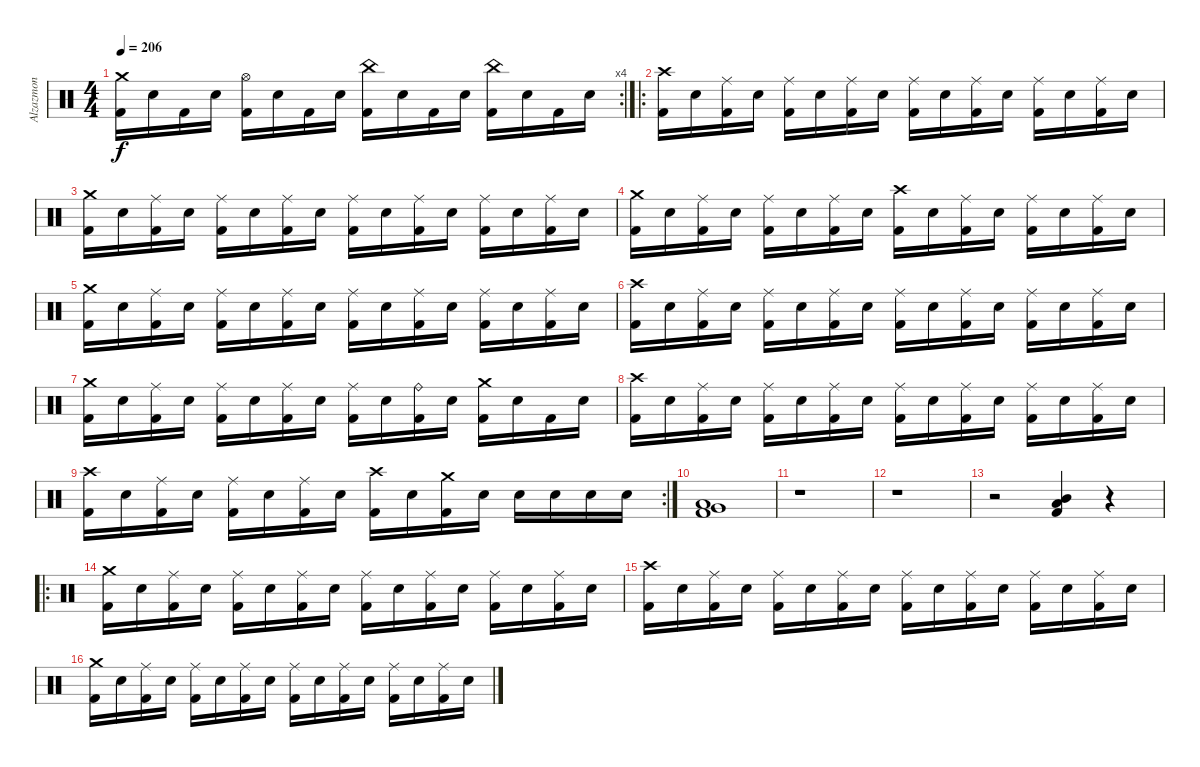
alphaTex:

\track ("Alzazmon" "Alzazmon") {instrument percussion}
\staff {score}
\articulation defaults
\rc 4
\ts (4 4)
\tempo 206
\clef neutral
\ks c
("Crash medium (hit)" "Kick (hit) 2").16{dy f} "Snare (hit) 2".16 "Kick (hit) 2".16 "Snare (hit) 2".16 ("Hi-Hat (open)" "Kick (hit) 2").16 "Snare (hit) 2".16 "Kick (hit) 2".16 "Snare (hit) 2".16 ("China (hit)" "Kick (hit) 2").16 "Snare (hit) 2".16 "Kick (hit) 2".16 "Snare (hit) 2".16 ("China (hit)" "Kick (hit) 2").16 "Snare (hit) 2".16 "Kick (hit) 2".16 "Snare (hit) 2".16 |
\ro
("Crash high (hit)" "Kick (hit) 2").16 "Snare (hit) 2".16 ("Ride (middle)" "Kick (hit) 2").16 "Snare (hit) 2".16 ("Ride (middle)" "Kick (hit) 2").16 "Snare (hit) 2".16 ("Ride (middle)" "Kick (hit) 2").16 "Snare (hit) 2".16 ("Ride (middle)" "Kick (hit) 2").16 "Snare (hit) 2".16 ("Ride (middle)" "Kick (hit) 2").16 "Snare (hit) 2".16 ("Ride (middle)" "Kick (hit) 2").16 "Snare (hit) 2".16 ("Ride (middle)" "Kick (hit) 2").16 "Snare (hit) 2".16 |
("Crash medium (hit)" "Kick (hit) 2").16 "Snare (hit) 2".16 ("Ride (middle)" "Kick (hit) 2").16 "Snare (hit) 2".16 ("Ride (middle)" "Kick (hit) 2").16 "Snare (hit) 2".16 ("Ride (middle)" "Kick (hit) 2").16 "Snare (hit) 2".16 ("Ride (middle)" "Kick (hit) 2").16 "Snare (hit) 2".16 ("Ride (middle)" "Kick (hit) 2").16 "Snare (hit) 2".16 ("Ride (middle)" "Kick (hit) 2").16 "Snare (hit) 2".16 ("Ride (middle)" "Kick (hit) 2").16 "Snare (hit) 2".16 |
("Crash medium (hit)" "Kick (hit) 2").16 "Snare (hit) 2".16 ("Ride (middle)" "Kick (hit) 2").16 "Snare (hit) 2".16 ("Ride (middle)" "Kick (hit) 2").16 "Snare (hit) 2".16 ("Ride (middle)" "Kick (hit) 2").16 "Snare (hit) 2".16 ("Crash high (hit)" "Kick (hit) 2").16 "Snare (hit) 2".16 ("Ride (middle)" "Kick (hit) 2").16 "Snare (hit) 2".16 ("Ride (middle)" "Kick (hit) 2").16 "Snare (hit) 2".16 ("Ride (middle)" "Kick (hit) 2").16 "Snare (hit) 2".16 |
("Crash medium (hit)" "Kick (hit) 2").16 "Snare (hit) 2".16 ("Ride (middle)" "Kick (hit) 2").16 "Snare (hit) 2".16 ("Ride (middle)" "Kick (hit) 2").16 "Snare (hit) 2".16 ("Ride (middle)" "Kick (hit) 2").16 "Snare (hit) 2".16 ("Ride (middle)" "Kick (hit) 2").16 "Snare (hit) 2".16 ("Ride (middle)" "Kick (hit) 2").16 "Snare (hit) 2".16 ("Ride (middle)" "Kick (hit) 2").16 "Snare (hit) 2".16 ("Ride (middle)" "Kick (hit) 2").16 "Snare (hit) 2".16 |
("Crash high (hit)" "Kick (hit) 2").16 "Snare (hit) 2".16 ("Ride (middle)" "Kick (hit) 2").16 "Snare (hit) 2".16 ("Ride (middle)" "Kick (hit) 2").16 "Snare (hit) 2".16 ("Ride (middle)" "Kick (hit) 2").16 "Snare (hit) 2".16 ("Ride (middle)" "Kick (hit) 2").16 "Snare (hit) 2".16 ("Ride (middle)" "Kick (hit) 2").16 "Snare (hit) 2".16 ("Ride (middle)" "Kick (hit) 2").16 "Snare (hit) 2".16 ("Ride (middle)" "Kick (hit) 2").16 "Snare (hit) 2".16 |
("Crash medium (hit)" "Kick (hit) 2").16 "Snare (hit) 2".16 ("Ride (middle)" "Kick (hit) 2").16 "Snare (hit) 2".16 ("Ride (middle)" "Kick (hit) 2").16 "Snare (hit) 2".16 ("Ride (middle)" "Kick (hit) 2").16 "Snare (hit) 2".16 ("Ride (middle)" "Kick (hit) 2").16 "Snare (hit) 2".16 ("Ride (bell)" "Kick (hit) 2").16 "Snare (hit) 2".16 ("Crash medium (hit)" "Kick (hit) 2").16 "Snare (hit) 2".16 "Kick (hit) 2".16 "Snare (hit) 2".16 |
("Crash high (hit)" "Kick (hit) 2").16 "Snare (hit) 2".16 ("Ride (middle)" "Kick (hit) 2").16 "Snare (hit) 2".16 ("Ride (middle)" "Kick (hit) 2").16 "Snare (hit) 2".16 ("Ride (middle)" "Kick (hit) 2").16 "Snare (hit) 2".16 ("Ride (middle)" "Kick (hit) 2").16 "Snare (hit) 2".16 ("Ride (middle)" "Kick (hit) 2").16 "Snare (hit) 2".16 ("Ride (middle)" "Kick (hit) 2").16 "Snare (hit) 2".16 ("Ride (middle)" "Kick (hit) 2").16 "Snare (hit) 2".16 |
\rc 2
("Crash high (hit)" "Kick (hit) 2").16 "Snare (hit) 2".16 ("Ride (middle)" "Kick (hit) 2").16 "Snare (hit) 2".16 ("Ride (middle)" "Kick (hit) 2").16 "Snare (hit) 2".16 ("Ride (middle)" "Kick (hit) 2").16 "Snare (hit) 2".16 ("Crash high (hit)" "Kick (hit) 2").16 "Snare (hit) 2".16 ("Crash medium (hit)" "Kick (hit) 2").16 "Snare (hit) 2".16 "Snare (hit) 2".16 "Snare (hit) 2".16 "Snare (hit) 2".16 "Snare (hit) 2".16 |
("Very Low Tom (hit)" "Low Floor Tom (hit)" "Kick (hit) 2").1 |
r.1 |
r.1 |
r.2 ("Mid Tom (hit)" "Low Tom (hit)" "Kick (hit) 2").4 r.4 |
\ro
("Crash medium (hit)" "Kick (hit) 2").16 "Snare (hit) 2".16 ("Ride (middle)" "Kick (hit) 2").16 "Snare (hit) 2".16 ("Ride (middle)" "Kick (hit) 2").16 "Snare (hit) 2".16 ("Ride (middle)" "Kick (hit) 2").16 "Snare (hit) 2".16 ("Ride (middle)" "Kick (hit) 2").16 "Snare (hit) 2".16 ("Ride (middle)" "Kick (hit) 2").16 "Snare (hit) 2".16 ("Ride (middle)" "Kick (hit) 2").16 "Snare (hit) 2".16 ("Ride (middle)" "Kick (hit) 2").16 "Snare (hit) 2".16 |
("Crash high (hit)" "Kick (hit) 2").16 "Snare (hit) 2".16 ("Ride (middle)" "Kick (hit) 2").16 "Snare (hit) 2".16 ("Ride (middle)" "Kick (hit) 2").16 "Snare (hit) 2".16 ("Ride (middle)" "Kick (hit) 2").16 "Snare (hit) 2".16 ("Ride (middle)" "Kick (hit) 2").16 "Snare (hit) 2".16 ("Ride (middle)" "Kick (hit) 2").16 "Snare (hit) 2".16 ("Ride (middle)" "Kick (hit) 2").16 "Snare (hit) 2".16 ("Ride (middle)" "Kick (hit) 2").16 "Snare (hit) 2".16 |
("Crash medium (hit)" "Kick (hit) 2").16 "Snare (hit) 2".16 ("Ride (middle)" "Kick (hit) 2").16 "Snare (hit) 2".16 ("Ride (middle)" "Kick (hit) 2").16 "Snare (hit) 2".16 ("Ride (middle)" "Kick (hit) 2").16 "Snare (hit) 2".16 ("Ride (middle)" "Kick (hit) 2").16 "Snare (hit) 2".16 ("Ride (middle)" "Kick (hit) 2").16 "Snare (hit) 2".16 ("Ride (middle)" "Kick (hit) 2").16 "Snare (hit) 2".16 ("Ride (middle)" "Kick (hit) 2").16 "Snare (hit) 2".16
